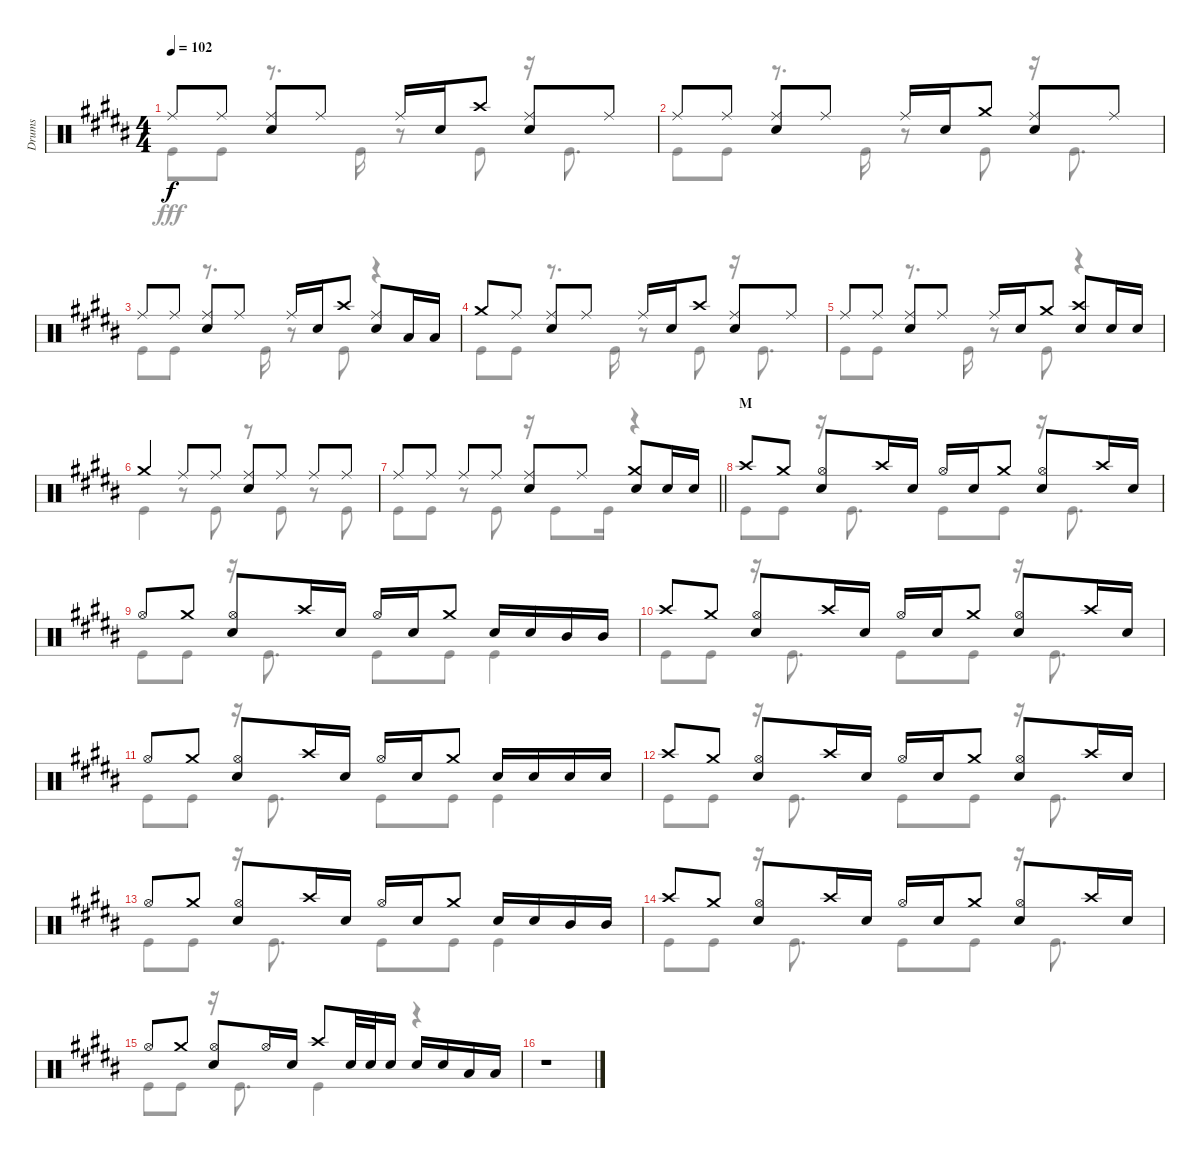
\track ("Drums" "Drums") {instrument percussion}
\staff {score}
\articulation defaults
\voice
\ts (4 4)
\tempo 102
\clef neutral
\ks b "Ride (middle)".8{dy f} "Ride (middle)".8
("Ride (middle)" "Snare (hit) 2").8 "Ride (middle)".8 "Ride (middle)".16 "Snare (hit) 2".16 "Crash high (hit)".8 ("Ride (middle)" "Snare (hit) 2").8 "Ride (middle)".8 |
"Ride (middle)".8 "Ride (middle)".8 ("Ride (middle)" "Snare (hit) 2").8 "Ride (middle)".8 "Ride (middle)".16 "Snare (hit) 2".16 "Crash medium (hit)".8 ("Ride (middle)" "Snare (hit) 2").8 "Ride (middle)".8 |
"Ride (middle)".8 "Ride (middle)".8 ("Ride (middle)" "Snare (hit) 2").8 "Ride (middle)".8 "Ride (middle)".16 "Snare (hit) 2".16 "Crash high (hit)".8 ("Ride (middle)" "Snare (hit) 2").8 "Low Tom (hit)".16 "Low Tom (hit)".16 |
"Crash medium (hit)".8 "Ride (middle)".8 ("Ride (middle)" "Snare (hit) 2").8 "Ride (middle)".8 "Ride (middle)".16 "Snare (hit) 2".16 "Crash high (hit)".8 ("Ride (middle)" "Snare (hit) 2").8 "Ride (middle)".8 |
"Ride (middle)".8 "Ride (middle)".8 ("Ride (middle)" "Snare (hit) 2").8 "Ride (middle)".8 "Ride (middle)".16 "Snare (hit) 2".16 "Crash medium (hit)".8 ("Crash high (hit)" "Snare (hit) 2").8 "Snare (hit) 2".16 "Snare (hit) 2".16 |
"Crash medium (hit)".4 "Ride (middle)".8 "Ride (middle)".8 ("Ride (middle)" "Snare (hit) 2").8 "Ride (middle)".8 "Ride (middle)".8 "Ride (middle)".8 |
\barLineRight lightlight "Ride (middle)".8 "Ride (middle)".8 "Ride (middle)".8 "Ride (middle)".8
("Ride (middle)" "Snare (hit) 2").8 "Ride (middle)".8 ("Crash medium (hit)" "Snare (hit) 2").8 "Snare (hit) 2".16 "Snare (hit) 2".16 |
\section ("" "M")
"Crash high (hit)".8 "Crash medium (hit)".8 ("Hi-Hat (open)" "Snare (hit) 2").8 "Crash high (hit)".16 "Snare (hit) 2".16 "Hi-Hat (open)".16 "Snare (hit) 2".16 "Crash medium (hit)".8 ("Hi-Hat (open)" "Snare (hit) 2").8 "Crash high (hit)".16 "Snare (hit) 2".16 |
"Hi-Hat (open)".8 "Crash medium (hit)".8 ("Hi-Hat (open)" "Snare (hit) 2").8 "Crash high (hit)".16 "Snare (hit) 2".16 "Hi-Hat (open)".16 "Snare (hit) 2".16 "Crash medium (hit)".8 "Snare (hit) 2".16 "Snare (hit) 2".16 "Mid Tom (hit)".16 "Mid Tom (hit)".16 |
"Crash high (hit)".8 "Crash medium (hit)".8 ("Hi-Hat (open)" "Snare (hit) 2").8 "Crash high (hit)".16 "Snare (hit) 2".16 "Hi-Hat (open)".16 "Snare (hit) 2".16 "Crash medium (hit)".8 ("Hi-Hat (open)" "Snare (hit) 2").8 "Crash high (hit)".16 "Snare (hit) 2".16 |
"Hi-Hat (open)".8 "Crash medium (hit)".8 ("Hi-Hat (open)" "Snare (hit) 2").8 "Crash high (hit)".16 "Snare (hit) 2".16 "Hi-Hat (open)".16 "Snare (hit) 2".16 "Crash medium (hit)".8 "Snare (hit) 2".16 "Snare (hit) 2".16 "Snare (hit) 2".16 "Snare (hit) 2".16 |
"Crash high (hit)".8 "Crash medium (hit)".8 ("Hi-Hat (open)" "Snare (hit) 2").8 "Crash high (hit)".16 "Snare (hit) 2".16 "Hi-Hat (open)".16 "Snare (hit) 2".16 "Crash medium (hit)".8 ("Hi-Hat (open)" "Snare (hit) 2").8 "Crash high (hit)".16 "Snare (hit) 2".16 |
"Hi-Hat (open)".8 "Crash medium (hit)".8 ("Hi-Hat (open)" "Snare (hit) 2").8 "Crash high (hit)".16 "Snare (hit) 2".16 "Hi-Hat (open)".16 "Snare (hit) 2".16 "Crash medium (hit)".8 "Snare (hit) 2".16 "Snare (hit) 2".16 "Mid Tom (hit)".16 "Mid Tom (hit)".16 |
"Crash high (hit)".8 "Crash medium (hit)".8 ("Hi-Hat (open)" "Snare (hit) 2").8 "Crash high (hit)".16 "Snare (hit) 2".16 "Hi-Hat (open)".16 "Snare (hit) 2".16 "Crash medium (hit)".8 ("Hi-Hat (open)" "Snare (hit) 2").8 "Crash high (hit)".16 "Snare (hit) 2".16 |
"Hi-Hat (open)".8 "Crash medium (hit)".8 ("Hi-Hat (open)" "Snare (hit) 2").8 "Hi-Hat (open)".16 "Snare (hit) 2".16 "Crash high (hit)".8 "Snare (hit) 2".32 "Snare (hit) 2".32 "Snare (hit) 2".16 "Snare (hit) 2".16 "Snare (hit) 2".16 "Low Tom (hit)".16 "Low Tom (hit)".16 |
r.1
\voice
\clef neutral
\ottava regular
\simile none
\ks b "Kick (hit)".8{dy fff} "Kick (hit)".8
r.8{d} "Kick (hit)".16 r.8 "Kick (hit)".8 r.16 "Kick (hit)".8{d} |
"Kick (hit)".8 "Kick (hit)".8 r.8{d} "Kick (hit)".16 r.8 "Kick (hit)".8 r.16 "Kick (hit)".8{d} |
"Kick (hit)".8 "Kick (hit)".8 r.8{d} "Kick (hit)".16 r.8 "Kick (hit)".8 r.4 |
"Kick (hit)".8 "Kick (hit)".8 r.8{d} "Kick (hit)".16 r.8 "Kick (hit)".8 r.16 "Kick (hit)".8{d} |
"Kick (hit)".8 "Kick (hit)".8 r.8{d} "Kick (hit)".16 r.8 "Kick (hit)".8 r.4 |
"Kick (hit)".4 r.8 "Kick (hit)".8 r.8 "Kick (hit)".8 r.8 "Kick (hit)".8 |
\barLineRight lightlight "Kick (hit)".8 "Kick (hit)".8
r.8 "Kick (hit)".8 r.16 "Kick (hit)".8 "Kick (hit)".16 r.4 |
"Kick (hit)".8 "Kick (hit)".8 r.16 "Kick (hit)".8{d} "Kick (hit)".8 "Kick (hit)".8 r.16 "Kick (hit)".8{d} |
"Kick (hit)".8 "Kick (hit)".8 r.16 "Kick (hit)".8{d} "Kick (hit)".8 "Kick (hit)".8 "Kick (hit)".4 |
"Kick (hit)".8 "Kick (hit)".8 r.16 "Kick (hit)".8{d} "Kick (hit)".8 "Kick (hit)".8 r.16 "Kick (hit)".8{d} |
"Kick (hit)".8 "Kick (hit)".8 r.16 "Kick (hit)".8{d} "Kick (hit)".8 "Kick (hit)".8 "Kick (hit)".4 |
"Kick (hit)".8 "Kick (hit)".8 r.16 "Kick (hit)".8{d} "Kick (hit)".8 "Kick (hit)".8 r.16 "Kick (hit)".8{d} |
"Kick (hit)".8 "Kick (hit)".8 r.16 "Kick (hit)".8{d} "Kick (hit)".8 "Kick (hit)".8 "Kick (hit)".4 |
"Kick (hit)".8 "Kick (hit)".8 r.16 "Kick (hit)".8{d} "Kick (hit)".8 "Kick (hit)".8 r.16 "Kick (hit)".8{d} |
"Kick (hit)".8 "Kick (hit)".8 r.16 "Kick (hit)".8{d} "Kick (hit)".4 r.4 |
r.1
